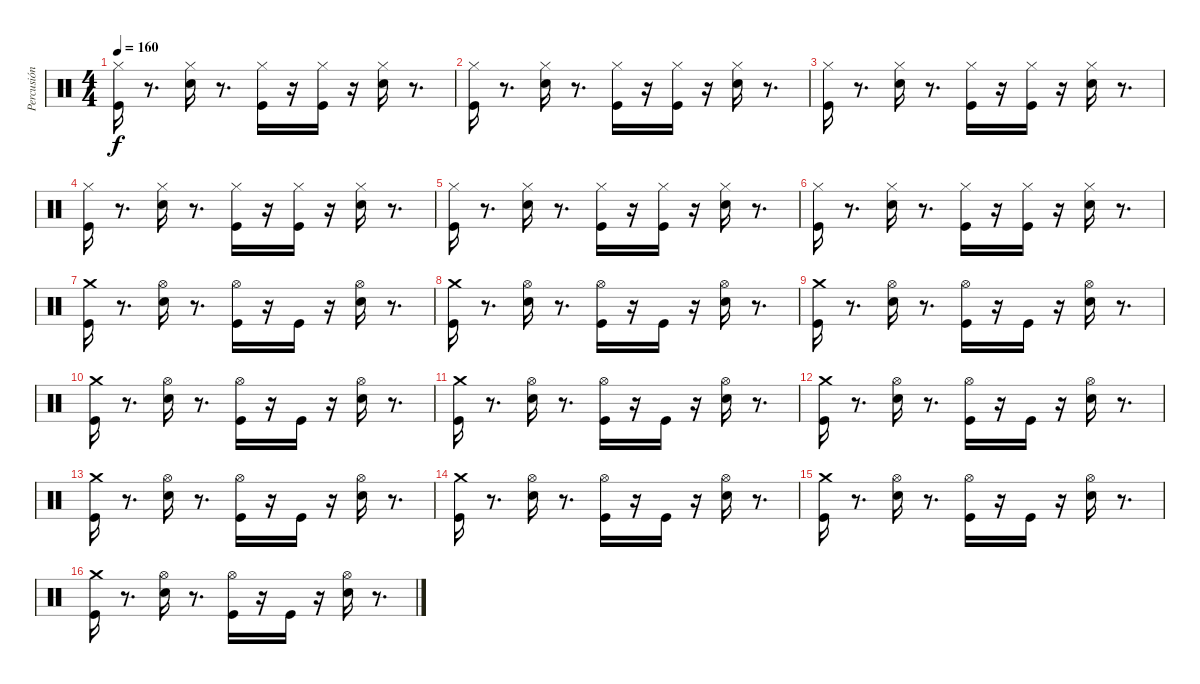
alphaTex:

\track ("Percusión" "Percusión") {instrument percussion}
\staff {score}
\articulation defaults
\ts (4 4)
\tempo 160
\clef neutral
\ks c
("Kick (hit)" "Hi-Hat (closed)").16{dy f} r.8{d} ("Snare (hit) 2" "Hi-Hat (closed)").16 r.8{d} ("Kick (hit)" "Hi-Hat (closed)").16 r.16 ("Kick (hit)" "Hi-Hat (closed)").16 r.16 ("Snare (hit) 2" "Hi-Hat (closed)").16 r.8{d} |
("Kick (hit)" "Hi-Hat (closed)").16 r.8{d} ("Snare (hit) 2" "Hi-Hat (closed)").16 r.8{d} ("Kick (hit)" "Hi-Hat (closed)").16 r.16 ("Kick (hit)" "Hi-Hat (closed)").16 r.16 ("Snare (hit) 2" "Hi-Hat (closed)").16 r.8{d} |
("Kick (hit)" "Hi-Hat (closed)").16 r.8{d} ("Snare (hit) 2" "Hi-Hat (closed)").16 r.8{d} ("Kick (hit)" "Hi-Hat (closed)").16 r.16 ("Kick (hit)" "Hi-Hat (closed)").16 r.16 ("Snare (hit) 2" "Hi-Hat (closed)").16 r.8{d} |
("Kick (hit)" "Hi-Hat (closed)").16 r.8{d} ("Snare (hit) 2" "Hi-Hat (closed)").16 r.8{d} ("Kick (hit)" "Hi-Hat (closed)").16 r.16 ("Kick (hit)" "Hi-Hat (closed)").16 r.16 ("Snare (hit) 2" "Hi-Hat (closed)").16 r.8{d} |
("Kick (hit)" "Hi-Hat (closed)").16 r.8{d} ("Snare (hit) 2" "Hi-Hat (closed)").16 r.8{d} ("Kick (hit)" "Hi-Hat (closed)").16 r.16 ("Kick (hit)" "Hi-Hat (closed)").16 r.16 ("Snare (hit) 2" "Hi-Hat (closed)").16 r.8{d} |
("Kick (hit)" "Hi-Hat (closed)").16 r.8{d} ("Snare (hit) 2" "Hi-Hat (closed)").16 r.8{d} ("Kick (hit)" "Hi-Hat (closed)").16 r.16 ("Kick (hit)" "Hi-Hat (closed)").16 r.16 ("Snare (hit) 2" "Hi-Hat (closed)").16 r.8{d} |
("Kick (hit)" "Crash medium (hit)").16 r.8{d} ("Snare (hit) 2" "Hi-Hat (open)").16 r.8{d} ("Kick (hit)" "Hi-Hat (open)").16 r.16 "Kick (hit)".16 r.16 ("Hi-Hat (open)" "Snare (hit) 2").16 r.8{d} |
("Kick (hit)" "Crash medium (hit)").16 r.8{d} ("Snare (hit) 2" "Hi-Hat (open)").16 r.8{d} ("Kick (hit)" "Hi-Hat (open)").16 r.16 "Kick (hit)".16 r.16 ("Hi-Hat (open)" "Snare (hit) 2").16 r.8{d} |
("Kick (hit)" "Crash medium (hit)").16 r.8{d} ("Snare (hit) 2" "Hi-Hat (open)").16 r.8{d} ("Kick (hit)" "Hi-Hat (open)").16 r.16 "Kick (hit)".16 r.16 ("Hi-Hat (open)" "Snare (hit) 2").16 r.8{d} |
("Kick (hit)" "Crash medium (hit)").16 r.8{d} ("Snare (hit) 2" "Hi-Hat (open)").16 r.8{d} ("Kick (hit)" "Hi-Hat (open)").16 r.16 "Kick (hit)".16 r.16 ("Hi-Hat (open)" "Snare (hit) 2").16 r.8{d} |
("Kick (hit)" "Crash medium (hit)").16 r.8{d} ("Snare (hit) 2" "Hi-Hat (open)").16 r.8{d} ("Kick (hit)" "Hi-Hat (open)").16 r.16 "Kick (hit)".16 r.16 ("Hi-Hat (open)" "Snare (hit) 2").16 r.8{d} |
("Kick (hit)" "Crash medium (hit)").16 r.8{d} ("Snare (hit) 2" "Hi-Hat (open)").16 r.8{d} ("Kick (hit)" "Hi-Hat (open)").16 r.16 "Kick (hit)".16 r.16 ("Hi-Hat (open)" "Snare (hit) 2").16 r.8{d} |
("Kick (hit)" "Crash medium (hit)").16 r.8{d} ("Snare (hit) 2" "Hi-Hat (open)").16 r.8{d} ("Kick (hit)" "Hi-Hat (open)").16 r.16 "Kick (hit)".16 r.16 ("Hi-Hat (open)" "Snare (hit) 2").16 r.8{d} |
("Kick (hit)" "Crash medium (hit)").16 r.8{d} ("Snare (hit) 2" "Hi-Hat (open)").16 r.8{d} ("Kick (hit)" "Hi-Hat (open)").16 r.16 "Kick (hit)".16 r.16 ("Hi-Hat (open)" "Snare (hit) 2").16 r.8{d} |
("Kick (hit)" "Crash medium (hit)").16 r.8{d} ("Snare (hit) 2" "Hi-Hat (open)").16 r.8{d} ("Kick (hit)" "Hi-Hat (open)").16 r.16 "Kick (hit)".16 r.16 ("Hi-Hat (open)" "Snare (hit) 2").16 r.8{d} |
("Kick (hit)" "Crash medium (hit)").16 r.8{d} ("Snare (hit) 2" "Hi-Hat (open)").16 r.8{d} ("Kick (hit)" "Hi-Hat (open)").16 r.16 "Kick (hit)".16 r.16 ("Hi-Hat (open)" "Snare (hit) 2").16 r.8{d}
